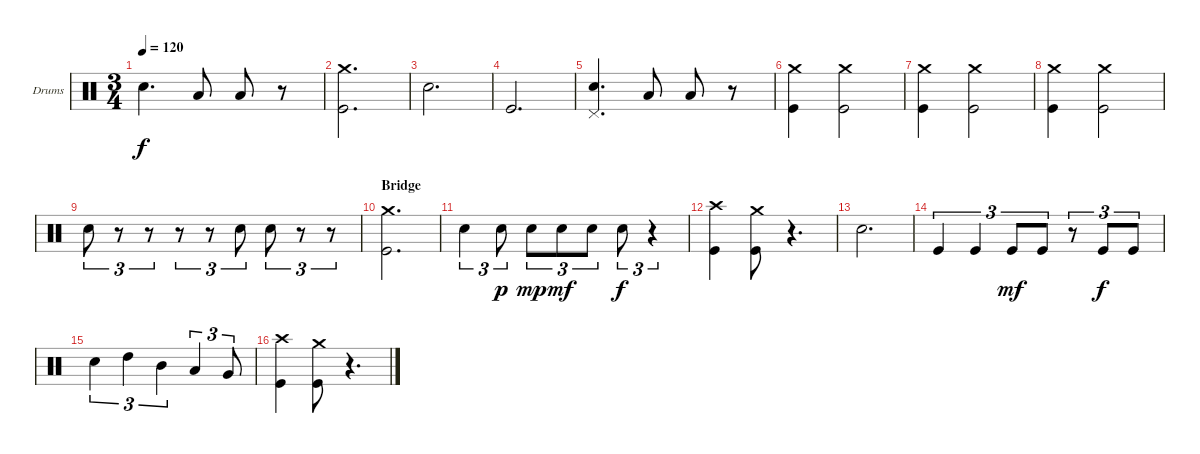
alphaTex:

\bracketExtendMode groupsimilarinstruments
\firstSystemTrackNameOrientation horizontal
\otherSystemsTrackNameOrientation horizontal
\track ("Drumkit" "Drums") {instrument percussion}
\staff {score}
\articulation defaults
\ts (3 4)
\tempo 120
\clef neutral
\ks c "Snare (hit) 2".4{d dy f} "Low Tom (hit)".8 "Low Tom (hit)".8
r.8 |
("Crash medium (hit)" "Kick (hit)").2{d} |
"Snare (hit) 2".2{d} |
"Kick (hit)".2{d} |
("Snare (hit) 2" "Pedal Hi-Hat (hit)").4{d} "Low Tom (hit)".8 "Low Tom (hit)".8 r.8 |
("Crash medium (hit)" "Kick (hit)").4 ("Crash medium (hit)" "Kick (hit)").2 |
("Crash medium (hit)" "Kick (hit)").4 ("Crash medium (hit)" "Kick (hit)").2 |
("Crash medium (hit)" "Kick (hit)").4 ("Crash medium (hit)" "Kick (hit)").2 |
"Snare (hit) 2".8{tu (3 2)} r.8{tu (3 2)} r.8{tu (3 2)} r.8{tu (3 2)} r.8{tu (3 2)} "Snare (hit) 2".8{tu (3 2)} "Snare (hit) 2".8{tu (3 2)} r.8{tu (3 2)} r.8{tu (3 2)} |
\section ("" "Bridge")
("Crash medium (hit)" "Kick (hit)").2{d} |
"Snare (hit) 2".4{tu (3 2)} "Snare (hit) 2".8{tu (3 2) dy p} "Snare (hit) 2".8{tu (3 2) dy mp} "Snare (hit) 2".8{tu (3 2) dy mf} "Snare (hit) 2".8{tu (3 2)} "Snare (hit) 2".8{tu (3 2) dy f} r.4{tu (3 2)} |
("Crash high (hit)" "Kick (hit)").4 ("Crash medium (hit)" "Kick (hit)").8 r.4{d} |
"Snare (hit) 2".2{d} |
"Kick (hit)".4{tu (3 2)} "Kick (hit)".4{tu (3 2)} "Kick (hit)".8{tu (3 2) dy mf} "Kick (hit)".8{tu (3 2)} r.8{tu (3 2)} "Kick (hit)".8{tu (3 2) dy f} "Kick (hit)".8{tu (3 2)} |
"Snare (hit) 2".4{tu (3 2)} "High Tom (hit)".4{tu (3 2)} "Mid Tom (hit)".4{tu (3 2)} "Low Tom (hit)".4{tu (3 2)} "Very Low Tom (hit)".8{tu (3 2)} |
("Crash high (hit)" "Kick (hit)").4 ("Crash medium (hit)" "Kick (hit)").8 r.4{d}
